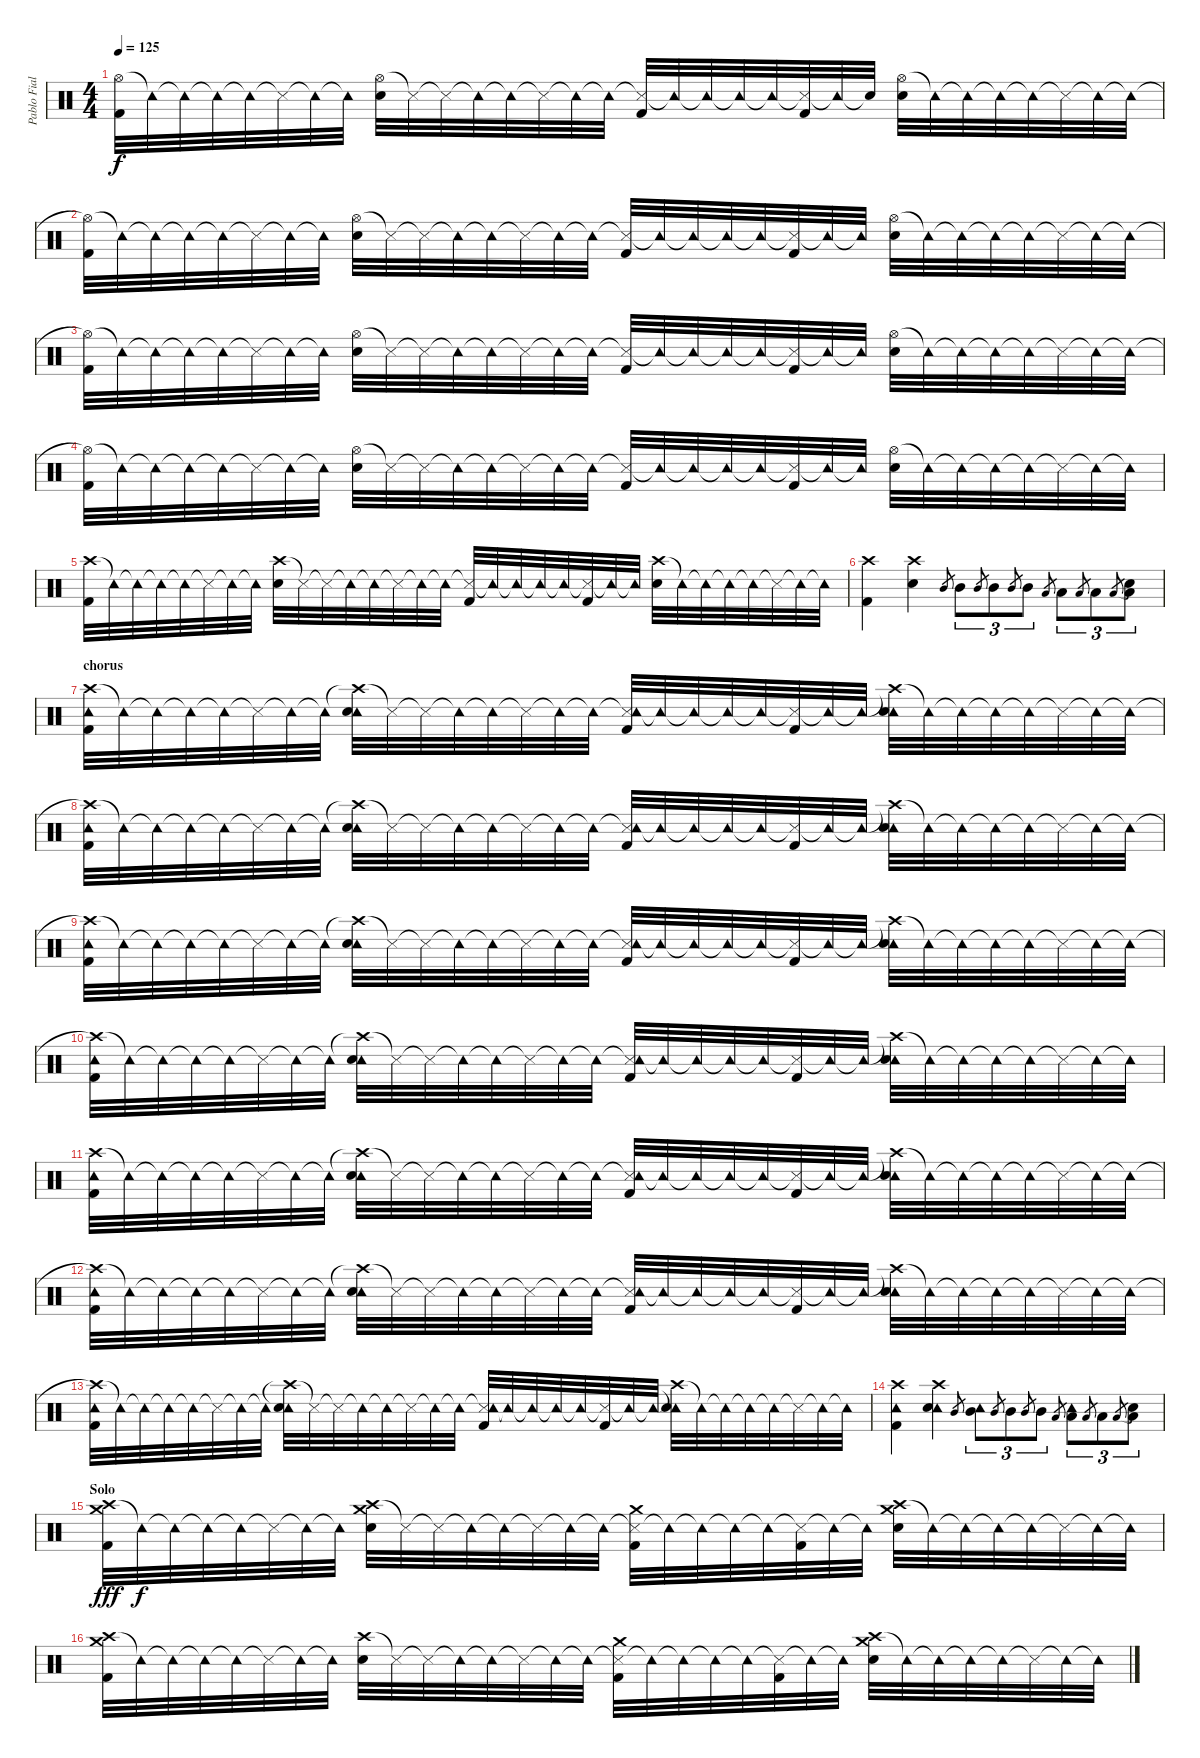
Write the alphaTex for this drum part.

\track ("Pablo Fiallo" "Pablo Fial") {instrument percussion}
\staff {score}
\articulation defaults
\ts (4 4)
\tempo 125
\clef neutral
\ks c
("Hi-Hat (open)" "Kick (hit) 2").32{dy f} "Tambourine (hit)"{t}.32 "Tambourine (hit)"{t}.32 "Tambourine (hit)"{t}.32 "Tambourine (hit)"{t}.32 "Snare (side stick) 3"{t}.32 "Tambourine (hit)"{t}.32 "Tambourine (hit)"{t}.32 ("Hi-Hat (open)" "Snare (hit) 2").32 "Snare (side stick) 3"{t}.32 "Snare (side stick) 3"{t}.32 "Tambourine (hit)"{t}.32 "Tambourine (hit)"{t}.32 "Snare (side stick) 3"{t}.32 "Tambourine (hit)"{t}.32 "Tambourine (hit)"{t}.32 ("Snare (side stick) 3"{t} "Kick (hit) 2").32 "Tambourine (hit)"{t}.32 "Tambourine (hit)"{t}.32 "Tambourine (hit)"{t}.32 "Tambourine (hit)"{t}.32 ("Snare (side stick) 3"{t} "Kick (hit) 2").32 "Tambourine (hit)"{t}.32 "Snare (hit)"{t}.32 ("Hi-Hat (open)" "Snare (hit) 2").32 "Tambourine (hit)"{t}.32 "Tambourine (hit)"{t}.32 "Tambourine (hit)"{t}.32 "Tambourine (hit)"{t}.32 "Snare (side stick) 3"{t}.32 "Tambourine (hit)"{t}.32 "Tambourine (hit)"{t}.32 |
("Hi-Hat (open)"{t} "Kick (hit) 2").32 "Tambourine (hit)"{t}.32 "Tambourine (hit)"{t}.32 "Tambourine (hit)"{t}.32 "Tambourine (hit)"{t}.32 "Snare (side stick) 3"{t}.32 "Tambourine (hit)"{t}.32 "Tambourine (hit)"{t}.32 ("Hi-Hat (open)" "Snare (hit) 2").32 "Snare (side stick) 3"{t}.32 "Snare (side stick) 3"{t}.32 "Tambourine (hit)"{t}.32 "Tambourine (hit)"{t}.32 "Snare (side stick) 3"{t}.32 "Tambourine (hit)"{t}.32 "Tambourine (hit)"{t}.32 ("Snare (side stick) 3"{t} "Kick (hit) 2").32 "Tambourine (hit)"{t}.32 "Tambourine (hit)"{t}.32 "Tambourine (hit)"{t}.32 "Tambourine (hit)"{t}.32 ("Snare (side stick) 3"{t} "Kick (hit) 2").32 "Tambourine (hit)"{t}.32 "Tambourine (hit)"{t}.32 ("Hi-Hat (open)" "Snare (hit) 2").32 "Tambourine (hit)"{t}.32 "Tambourine (hit)"{t}.32 "Tambourine (hit)"{t}.32 "Tambourine (hit)"{t}.32 "Snare (side stick) 3"{t}.32 "Tambourine (hit)"{t}.32 "Tambourine (hit)"{t}.32 |
("Hi-Hat (open)"{t} "Kick (hit) 2").32 "Tambourine (hit)"{t}.32 "Tambourine (hit)"{t}.32 "Tambourine (hit)"{t}.32 "Tambourine (hit)"{t}.32 "Snare (side stick) 3"{t}.32 "Tambourine (hit)"{t}.32 "Tambourine (hit)"{t}.32 ("Hi-Hat (open)" "Snare (hit) 2").32 "Snare (side stick) 3"{t}.32 "Snare (side stick) 3"{t}.32 "Tambourine (hit)"{t}.32 "Tambourine (hit)"{t}.32 "Snare (side stick) 3"{t}.32 "Tambourine (hit)"{t}.32 "Tambourine (hit)"{t}.32 ("Snare (side stick) 3"{t} "Kick (hit) 2").32 "Tambourine (hit)"{t}.32 "Tambourine (hit)"{t}.32 "Tambourine (hit)"{t}.32 "Tambourine (hit)"{t}.32 ("Snare (side stick) 3"{t} "Kick (hit) 2").32 "Tambourine (hit)"{t}.32 "Tambourine (hit)"{t}.32 ("Hi-Hat (open)" "Snare (hit) 2").32 "Tambourine (hit)"{t}.32 "Tambourine (hit)"{t}.32 "Tambourine (hit)"{t}.32 "Tambourine (hit)"{t}.32 "Snare (side stick) 3"{t}.32 "Tambourine (hit)"{t}.32 "Tambourine (hit)"{t}.32 |
("Hi-Hat (open)"{t} "Kick (hit) 2").32 "Tambourine (hit)"{t}.32 "Tambourine (hit)"{t}.32 "Tambourine (hit)"{t}.32 "Tambourine (hit)"{t}.32 "Snare (side stick) 3"{t}.32 "Tambourine (hit)"{t}.32 "Tambourine (hit)"{t}.32 ("Hi-Hat (open)" "Snare (hit) 2").32 "Snare (side stick) 3"{t}.32 "Snare (side stick) 3"{t}.32 "Tambourine (hit)"{t}.32 "Tambourine (hit)"{t}.32 "Snare (side stick) 3"{t}.32 "Tambourine (hit)"{t}.32 "Tambourine (hit)"{t}.32 ("Snare (side stick) 3"{t} "Kick (hit) 2").32 "Tambourine (hit)"{t}.32 "Tambourine (hit)"{t}.32 "Tambourine (hit)"{t}.32 "Tambourine (hit)"{t}.32 ("Snare (side stick) 3"{t} "Kick (hit) 2").32 "Tambourine (hit)"{t}.32 "Tambourine (hit)"{t}.32 ("Hi-Hat (open)" "Snare (hit) 2").32 "Tambourine (hit)"{t}.32 "Tambourine (hit)"{t}.32 "Tambourine (hit)"{t}.32 "Tambourine (hit)"{t}.32 "Snare (side stick) 3"{t}.32 "Tambourine (hit)"{t}.32 "Tambourine (hit)"{t}.32 |
("Crash high (hit)" "Kick (hit) 2").32 "Tambourine (hit)"{t}.32 "Tambourine (hit)"{t}.32 "Tambourine (hit)"{t}.32 "Tambourine (hit)"{t}.32 "Snare (side stick) 3"{t}.32 "Tambourine (hit)"{t}.32 "Tambourine (hit)"{t}.32 ("Crash high (hit)" "Snare (hit) 2").32 "Snare (side stick) 3"{t}.32 "Snare (side stick) 3"{t}.32 "Tambourine (hit)"{t}.32 "Tambourine (hit)"{t}.32 "Snare (side stick) 3"{t}.32 "Tambourine (hit)"{t}.32 "Tambourine (hit)"{t}.32 ("Snare (side stick) 3"{t} "Kick (hit) 2").32 "Tambourine (hit)"{t}.32 "Tambourine (hit)"{t}.32 "Tambourine (hit)"{t}.32 "Tambourine (hit)"{t}.32 ("Snare (side stick) 3"{t} "Kick (hit) 2").32 "Tambourine (hit)"{t}.32 "Tambourine (hit)"{t}.32 ("Crash high (hit)" "Snare (hit) 2").32 "Tambourine (hit)"{t}.32 "Tambourine (hit)"{t}.32 "Tambourine (hit)"{t}.32 "Tambourine (hit)"{t}.32 "Snare (side stick) 3"{t}.32 "Tambourine (hit)"{t}.32 "Tambourine (hit)"{t}.32 |
("Crash high (hit)" "Kick (hit) 2").4 ("Crash high (hit)" "Snare (hit) 2").4 "Mid Tom (hit)".8{gr} "Mid Tom (hit)".8{tu (3 2)} "Mid Tom (hit)".8{gr} "Mid Tom (hit)".8{tu (3 2)} "Mid Tom (hit)".8{gr} "Mid Tom (hit)".8{tu (3 2)} "Low Tom (hit)".8{gr} "Low Tom (hit)".8{tu (3 2)} "Low Tom (hit)".8{gr} "Low Tom (hit)".8{tu (3 2)} "Low Tom (hit)".8{gr} ("Snare (hit)"{t} "Low Tom (hit)").8{tu (3 2)} |
\section ("" "chorus")
("Crash high (hit)" "Tambourine (hit)" "Kick (hit) 2").32 "Tambourine (hit)"{t}.32 "Tambourine (hit)"{t}.32 "Tambourine (hit)"{t}.32 "Tambourine (hit)"{t}.32 "Snare (side stick) 3"{t}.32 "Tambourine (hit)"{t}.32 "Tambourine (hit)"{t}.32 ("Crash high (hit)"{t} "Tambourine (hit)" "Snare (hit) 2").32 "Snare (side stick) 3"{t}.32 "Snare (side stick) 3"{t}.32 "Tambourine (hit)"{t}.32 "Tambourine (hit)"{t}.32 "Snare (side stick) 3"{t}.32 "Tambourine (hit)"{t}.32 "Tambourine (hit)"{t}.32 ("Snare (side stick) 3"{t} "Tambourine (hit)" "Kick (hit) 2").32 "Tambourine (hit)"{t}.32 "Tambourine (hit)"{t}.32 "Tambourine (hit)"{t}.32 "Tambourine (hit)"{t}.32 ("Snare (side stick) 3"{t} "Kick (hit) 2").32 "Tambourine (hit)"{t}.32 "Tambourine (hit)"{t}.32 ("Crash high (hit)"{t} "Tambourine (hit)" "Snare (hit) 2").32 "Tambourine (hit)"{t}.32 "Tambourine (hit)"{t}.32 "Tambourine (hit)"{t}.32 "Tambourine (hit)"{t}.32 "Snare (side stick) 3"{t}.32 "Tambourine (hit)"{t}.32 "Tambourine (hit)"{t}.32 |
("Crash high (hit)"{t} "Tambourine (hit)" "Kick (hit) 2").32 "Tambourine (hit)"{t}.32 "Tambourine (hit)"{t}.32 "Tambourine (hit)"{t}.32 "Tambourine (hit)"{t}.32 "Snare (side stick) 3"{t}.32 "Tambourine (hit)"{t}.32 "Tambourine (hit)"{t}.32 ("Crash high (hit)"{t} "Tambourine (hit)" "Snare (hit) 2").32 "Snare (side stick) 3"{t}.32 "Snare (side stick) 3"{t}.32 "Tambourine (hit)"{t}.32 "Tambourine (hit)"{t}.32 "Snare (side stick) 3"{t}.32 "Tambourine (hit)"{t}.32 "Tambourine (hit)"{t}.32 ("Snare (side stick) 3"{t} "Tambourine (hit)" "Kick (hit) 2").32 "Tambourine (hit)"{t}.32 "Tambourine (hit)"{t}.32 "Tambourine (hit)"{t}.32 "Tambourine (hit)"{t}.32 ("Snare (side stick) 3"{t} "Kick (hit) 2").32 "Tambourine (hit)"{t}.32 "Tambourine (hit)"{t}.32 ("Crash high (hit)"{t} "Tambourine (hit)" "Snare (hit) 2").32 "Tambourine (hit)"{t}.32 "Tambourine (hit)"{t}.32 "Tambourine (hit)"{t}.32 "Tambourine (hit)"{t}.32 "Snare (side stick) 3"{t}.32 "Tambourine (hit)"{t}.32 "Tambourine (hit)"{t}.32 |
("Crash high (hit)"{t} "Tambourine (hit)" "Kick (hit) 2").32 "Tambourine (hit)"{t}.32 "Tambourine (hit)"{t}.32 "Tambourine (hit)"{t}.32 "Tambourine (hit)"{t}.32 "Snare (side stick) 3"{t}.32 "Tambourine (hit)"{t}.32 "Tambourine (hit)"{t}.32 ("Crash high (hit)"{t} "Tambourine (hit)" "Snare (hit) 2").32 "Snare (side stick) 3"{t}.32 "Snare (side stick) 3"{t}.32 "Tambourine (hit)"{t}.32 "Tambourine (hit)"{t}.32 "Snare (side stick) 3"{t}.32 "Tambourine (hit)"{t}.32 "Tambourine (hit)"{t}.32 ("Snare (side stick) 3"{t} "Tambourine (hit)" "Kick (hit) 2").32 "Tambourine (hit)"{t}.32 "Tambourine (hit)"{t}.32 "Tambourine (hit)"{t}.32 "Tambourine (hit)"{t}.32 ("Snare (side stick) 3"{t} "Kick (hit) 2").32 "Tambourine (hit)"{t}.32 "Tambourine (hit)"{t}.32 ("Crash high (hit)"{t} "Tambourine (hit)" "Snare (hit) 2").32 "Tambourine (hit)"{t}.32 "Tambourine (hit)"{t}.32 "Tambourine (hit)"{t}.32 "Tambourine (hit)"{t}.32 "Snare (side stick) 3"{t}.32 "Tambourine (hit)"{t}.32 "Tambourine (hit)"{t}.32 |
("Crash high (hit)"{t} "Tambourine (hit)" "Kick (hit) 2").32 "Tambourine (hit)"{t}.32 "Tambourine (hit)"{t}.32 "Tambourine (hit)"{t}.32 "Tambourine (hit)"{t}.32 "Snare (side stick) 3"{t}.32 "Tambourine (hit)"{t}.32 "Tambourine (hit)"{t}.32 ("Crash high (hit)"{t} "Tambourine (hit)" "Snare (hit) 2").32 "Snare (side stick) 3"{t}.32 "Snare (side stick) 3"{t}.32 "Tambourine (hit)"{t}.32 "Tambourine (hit)"{t}.32 "Snare (side stick) 3"{t}.32 "Tambourine (hit)"{t}.32 "Tambourine (hit)"{t}.32 ("Snare (side stick) 3"{t} "Tambourine (hit)" "Kick (hit) 2").32 "Tambourine (hit)"{t}.32 "Tambourine (hit)"{t}.32 "Tambourine (hit)"{t}.32 "Tambourine (hit)"{t}.32 ("Snare (side stick) 3"{t} "Kick (hit) 2").32 "Tambourine (hit)"{t}.32 "Tambourine (hit)"{t}.32 ("Crash high (hit)"{t} "Tambourine (hit)" "Snare (hit) 2").32 "Tambourine (hit)"{t}.32 "Tambourine (hit)"{t}.32 "Tambourine (hit)"{t}.32 "Tambourine (hit)"{t}.32 "Snare (side stick) 3"{t}.32 "Tambourine (hit)"{t}.32 "Tambourine (hit)"{t}.32 |
("Crash high (hit)" "Tambourine (hit)" "Kick (hit) 2").32 "Tambourine (hit)"{t}.32 "Tambourine (hit)"{t}.32 "Tambourine (hit)"{t}.32 "Tambourine (hit)"{t}.32 "Snare (side stick) 3"{t}.32 "Tambourine (hit)"{t}.32 "Tambourine (hit)"{t}.32 ("Crash high (hit)"{t} "Tambourine (hit)" "Snare (hit) 2").32 "Snare (side stick) 3"{t}.32 "Snare (side stick) 3"{t}.32 "Tambourine (hit)"{t}.32 "Tambourine (hit)"{t}.32 "Snare (side stick) 3"{t}.32 "Tambourine (hit)"{t}.32 "Tambourine (hit)"{t}.32 ("Snare (side stick) 3"{t} "Tambourine (hit)" "Kick (hit) 2").32 "Tambourine (hit)"{t}.32 "Tambourine (hit)"{t}.32 "Tambourine (hit)"{t}.32 "Tambourine (hit)"{t}.32 ("Snare (side stick) 3"{t} "Kick (hit) 2").32 "Tambourine (hit)"{t}.32 "Tambourine (hit)"{t}.32 ("Crash high (hit)"{t} "Tambourine (hit)" "Snare (hit) 2").32 "Tambourine (hit)"{t}.32 "Tambourine (hit)"{t}.32 "Tambourine (hit)"{t}.32 "Tambourine (hit)"{t}.32 "Snare (side stick) 3"{t}.32 "Tambourine (hit)"{t}.32 "Tambourine (hit)"{t}.32 |
("Crash high (hit)"{t} "Tambourine (hit)" "Kick (hit) 2").32 "Tambourine (hit)"{t}.32 "Tambourine (hit)"{t}.32 "Tambourine (hit)"{t}.32 "Tambourine (hit)"{t}.32 "Snare (side stick) 3"{t}.32 "Tambourine (hit)"{t}.32 "Tambourine (hit)"{t}.32 ("Crash high (hit)"{t} "Tambourine (hit)" "Snare (hit) 2").32 "Snare (side stick) 3"{t}.32 "Snare (side stick) 3"{t}.32 "Tambourine (hit)"{t}.32 "Tambourine (hit)"{t}.32 "Snare (side stick) 3"{t}.32 "Tambourine (hit)"{t}.32 "Tambourine (hit)"{t}.32 ("Snare (side stick) 3"{t} "Tambourine (hit)" "Kick (hit) 2").32 "Tambourine (hit)"{t}.32 "Tambourine (hit)"{t}.32 "Tambourine (hit)"{t}.32 "Tambourine (hit)"{t}.32 ("Snare (side stick) 3"{t} "Kick (hit) 2").32 "Tambourine (hit)"{t}.32 "Tambourine (hit)"{t}.32 ("Crash high (hit)"{t} "Tambourine (hit)" "Snare (hit) 2").32 "Tambourine (hit)"{t}.32 "Tambourine (hit)"{t}.32 "Tambourine (hit)"{t}.32 "Tambourine (hit)"{t}.32 "Snare (side stick) 3"{t}.32 "Tambourine (hit)"{t}.32 "Tambourine (hit)"{t}.32 |
("Crash high (hit)"{t} "Tambourine (hit)" "Kick (hit) 2").32 "Tambourine (hit)"{t}.32 "Tambourine (hit)"{t}.32 "Tambourine (hit)"{t}.32 "Tambourine (hit)"{t}.32 "Snare (side stick) 3"{t}.32 "Tambourine (hit)"{t}.32 "Tambourine (hit)"{t}.32 ("Crash high (hit)"{t} "Tambourine (hit)" "Snare (hit) 2").32 "Snare (side stick) 3"{t}.32 "Snare (side stick) 3"{t}.32 "Tambourine (hit)"{t}.32 "Tambourine (hit)"{t}.32 "Snare (side stick) 3"{t}.32 "Tambourine (hit)"{t}.32 "Tambourine (hit)"{t}.32 ("Snare (side stick) 3"{t} "Tambourine (hit)" "Kick (hit) 2").32 "Tambourine (hit)"{t}.32 "Tambourine (hit)"{t}.32 "Tambourine (hit)"{t}.32 "Tambourine (hit)"{t}.32 ("Snare (side stick) 3"{t} "Kick (hit) 2").32 "Tambourine (hit)"{t}.32 "Tambourine (hit)"{t}.32 ("Crash high (hit)"{t} "Tambourine (hit)" "Snare (hit) 2").32 "Tambourine (hit)"{t}.32 "Tambourine (hit)"{t}.32 "Tambourine (hit)"{t}.32 "Tambourine (hit)"{t}.32 "Snare (side stick) 3"{t}.32 "Tambourine (hit)"{t}.32 "Tambourine (hit)"{t}.32 |
("Crash high (hit)" "Tambourine (hit)" "Kick (hit) 2").4 ("Crash high (hit)" "Tambourine (hit)" "Snare (hit) 2").4 "Mid Tom (hit)".8{gr} ("Tambourine (hit)" "Mid Tom (hit)").8{tu (3 2)} "Mid Tom (hit)".8{gr} "Mid Tom (hit)".8{tu (3 2)} "Mid Tom (hit)".8{gr} "Mid Tom (hit)".8{tu (3 2)} "Low Tom (hit)".8{gr} ("Tambourine (hit)" "Low Tom (hit)").8{tu (3 2)} "Low Tom (hit)".8{gr} "Low Tom (hit)".8{tu (3 2)} "Low Tom (hit)".8{gr} ("Snare (hit)"{t} "Low Tom (hit)").8{tu (3 2)} |
\section ("" "Solo")
("Crash high (hit)" "Crash medium (hit)" "Kick (hit) 2").32{dy fff} "Tambourine (hit)"{t}.32{dy f} "Tambourine (hit)"{t}.32 "Tambourine (hit)"{t}.32 "Tambourine (hit)"{t}.32 "Snare (side stick) 3"{t}.32 "Tambourine (hit)"{t}.32 "Tambourine (hit)"{t}.32 ("Crash high (hit)" "Crash medium (hit)" "Snare (hit) 2").32 "Snare (side stick) 3"{t}.32 "Snare (side stick) 3"{t}.32 "Tambourine (hit)"{t}.32 "Tambourine (hit)"{t}.32 "Snare (side stick) 3"{t}.32 "Tambourine (hit)"{t}.32 "Tambourine (hit)"{t}.32 ("Snare (side stick) 3"{t} "Crash medium (hit)" "Kick (hit) 2").32 "Tambourine (hit)"{t}.32 "Tambourine (hit)"{t}.32 "Tambourine (hit)"{t}.32 "Tambourine (hit)"{t}.32 ("Snare (side stick) 3"{t} "Kick (hit) 2").32 "Tambourine (hit)"{t}.32 "Tambourine (hit)"{t}.32 ("Crash high (hit)" "Crash medium (hit)" "Snare (hit) 2").32 "Tambourine (hit)"{t}.32 "Tambourine (hit)"{t}.32 "Tambourine (hit)"{t}.32 "Tambourine (hit)"{t}.32 "Snare (side stick) 3"{t}.32 "Tambourine (hit)"{t}.32 "Tambourine (hit)"{t}.32 |
("Crash high (hit)" "Crash medium (hit)" "Kick (hit) 2").32 "Tambourine (hit)"{t}.32 "Tambourine (hit)"{t}.32 "Tambourine (hit)"{t}.32 "Tambourine (hit)"{t}.32 "Snare (side stick) 3"{t}.32 "Tambourine (hit)"{t}.32 "Tambourine (hit)"{t}.32 ("Crash high (hit)" "Snare (hit) 2").32 "Snare (side stick) 3"{t}.32 "Snare (side stick) 3"{t}.32 "Tambourine (hit)"{t}.32 "Tambourine (hit)"{t}.32 "Snare (side stick) 3"{t}.32 "Tambourine (hit)"{t}.32 "Tambourine (hit)"{t}.32 ("Snare (side stick) 3"{t} "Crash medium (hit)" "Kick (hit) 2").32 "Tambourine (hit)"{t}.32 "Tambourine (hit)"{t}.32 "Tambourine (hit)"{t}.32 "Tambourine (hit)"{t}.32 ("Snare (side stick) 3"{t} "Kick (hit) 2").32 "Tambourine (hit)"{t}.32 "Tambourine (hit)"{t}.32 ("Crash high (hit)" "Crash medium (hit)" "Snare (hit) 2").32 "Tambourine (hit)"{t}.32 "Tambourine (hit)"{t}.32 "Tambourine (hit)"{t}.32 "Tambourine (hit)"{t}.32 "Snare (side stick) 3"{t}.32 "Tambourine (hit)"{t}.32 "Tambourine (hit)"{t}.32
